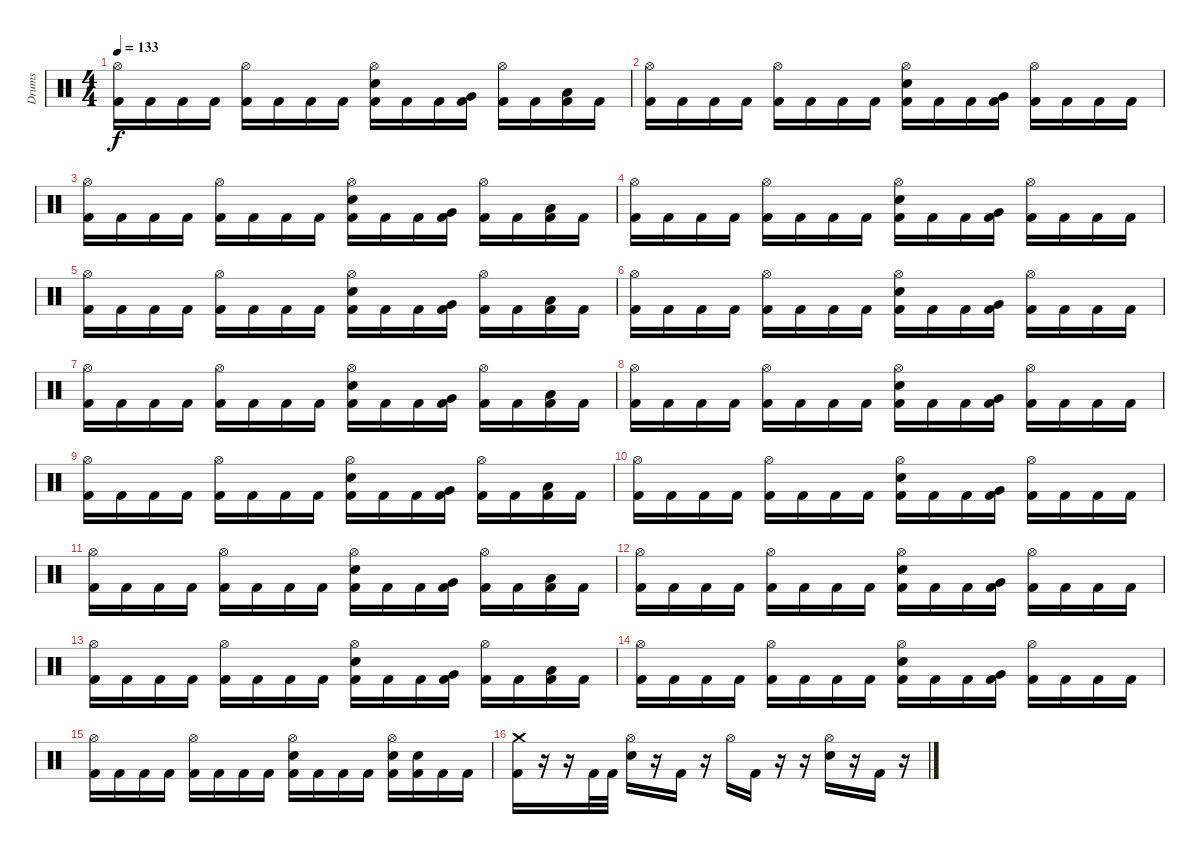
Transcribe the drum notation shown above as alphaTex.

\track ("Drums" "Drums") {instrument percussion}
\staff {score}
\articulation defaults
\ts (4 4)
\tempo 133
\clef neutral
\ks c
("Hi-Hat (open)" "Kick (hit) 2").16{dy f} "Kick (hit) 2".16 "Kick (hit) 2".16 "Kick (hit) 2".16 ("Hi-Hat (open)" "Kick (hit) 2").16 "Kick (hit) 2".16 "Kick (hit) 2".16 "Kick (hit) 2".16 ("Hi-Hat (open)" "Electric Snare (hit)" "Kick (hit) 2").16 "Kick (hit) 2".16 "Kick (hit) 2".16 ("Very Low Tom (hit)" "Kick (hit) 2").16 ("Hi-Hat (open)" "Kick (hit) 2").16 "Kick (hit) 2".16 ("Low Floor Tom (hit)" "Kick (hit) 2").16 "Kick (hit) 2".16 |
("Hi-Hat (open)" "Kick (hit) 2").16 "Kick (hit) 2".16 "Kick (hit) 2".16 "Kick (hit) 2".16 ("Hi-Hat (open)" "Kick (hit) 2").16 "Kick (hit) 2".16 "Kick (hit) 2".16 "Kick (hit) 2".16 ("Hi-Hat (open)" "Electric Snare (hit)" "Kick (hit) 2").16 "Kick (hit) 2".16 "Kick (hit) 2".16 ("Very Low Tom (hit)" "Kick (hit) 2").16 ("Hi-Hat (open)" "Kick (hit) 2").16 "Kick (hit) 2".16 "Kick (hit) 2".16 "Kick (hit) 2".16 |
("Hi-Hat (open)" "Kick (hit) 2").16 "Kick (hit) 2".16 "Kick (hit) 2".16 "Kick (hit) 2".16 ("Hi-Hat (open)" "Kick (hit) 2").16 "Kick (hit) 2".16 "Kick (hit) 2".16 "Kick (hit) 2".16 ("Hi-Hat (open)" "Electric Snare (hit)" "Kick (hit) 2").16 "Kick (hit) 2".16 "Kick (hit) 2".16 ("Very Low Tom (hit)" "Kick (hit) 2").16 ("Hi-Hat (open)" "Kick (hit) 2").16 "Kick (hit) 2".16 ("Low Floor Tom (hit)" "Kick (hit) 2").16 "Kick (hit) 2".16 |
("Hi-Hat (open)" "Kick (hit) 2").16 "Kick (hit) 2".16 "Kick (hit) 2".16 "Kick (hit) 2".16 ("Hi-Hat (open)" "Kick (hit) 2").16 "Kick (hit) 2".16 "Kick (hit) 2".16 "Kick (hit) 2".16 ("Hi-Hat (open)" "Electric Snare (hit)" "Kick (hit) 2").16 "Kick (hit) 2".16 "Kick (hit) 2".16 ("Very Low Tom (hit)" "Kick (hit) 2").16 ("Hi-Hat (open)" "Kick (hit) 2").16 "Kick (hit) 2".16 "Kick (hit) 2".16 "Kick (hit) 2".16 |
("Hi-Hat (open)" "Kick (hit) 2").16 "Kick (hit) 2".16 "Kick (hit) 2".16 "Kick (hit) 2".16 ("Hi-Hat (open)" "Kick (hit) 2").16 "Kick (hit) 2".16 "Kick (hit) 2".16 "Kick (hit) 2".16 ("Hi-Hat (open)" "Electric Snare (hit)" "Kick (hit) 2").16 "Kick (hit) 2".16 "Kick (hit) 2".16 ("Very Low Tom (hit)" "Kick (hit) 2").16 ("Hi-Hat (open)" "Kick (hit) 2").16 "Kick (hit) 2".16 ("Low Floor Tom (hit)" "Kick (hit) 2").16 "Kick (hit) 2".16 |
("Hi-Hat (open)" "Kick (hit) 2").16 "Kick (hit) 2".16 "Kick (hit) 2".16 "Kick (hit) 2".16 ("Hi-Hat (open)" "Kick (hit) 2").16 "Kick (hit) 2".16 "Kick (hit) 2".16 "Kick (hit) 2".16 ("Hi-Hat (open)" "Electric Snare (hit)" "Kick (hit) 2").16 "Kick (hit) 2".16 "Kick (hit) 2".16 ("Very Low Tom (hit)" "Kick (hit) 2").16 ("Hi-Hat (open)" "Kick (hit) 2").16 "Kick (hit) 2".16 "Kick (hit) 2".16 "Kick (hit) 2".16 |
("Hi-Hat (open)" "Kick (hit) 2").16 "Kick (hit) 2".16 "Kick (hit) 2".16 "Kick (hit) 2".16 ("Hi-Hat (open)" "Kick (hit) 2").16 "Kick (hit) 2".16 "Kick (hit) 2".16 "Kick (hit) 2".16 ("Hi-Hat (open)" "Electric Snare (hit)" "Kick (hit) 2").16 "Kick (hit) 2".16 "Kick (hit) 2".16 ("Very Low Tom (hit)" "Kick (hit) 2").16 ("Hi-Hat (open)" "Kick (hit) 2").16 "Kick (hit) 2".16 ("Low Floor Tom (hit)" "Kick (hit) 2").16 "Kick (hit) 2".16 |
\section ("" "")
("Hi-Hat (open)" "Kick (hit) 2").16 "Kick (hit) 2".16 "Kick (hit) 2".16 "Kick (hit) 2".16 ("Hi-Hat (open)" "Kick (hit) 2").16 "Kick (hit) 2".16 "Kick (hit) 2".16 "Kick (hit) 2".16 ("Hi-Hat (open)" "Electric Snare (hit)" "Kick (hit) 2").16 "Kick (hit) 2".16 "Kick (hit) 2".16 ("Very Low Tom (hit)" "Kick (hit) 2").16 ("Hi-Hat (open)" "Kick (hit) 2").16 "Kick (hit) 2".16 "Kick (hit) 2".16 "Kick (hit) 2".16 |
("Hi-Hat (open)" "Kick (hit) 2").16 "Kick (hit) 2".16 "Kick (hit) 2".16 "Kick (hit) 2".16 ("Hi-Hat (open)" "Kick (hit) 2").16 "Kick (hit) 2".16 "Kick (hit) 2".16 "Kick (hit) 2".16 ("Hi-Hat (open)" "Electric Snare (hit)" "Kick (hit) 2").16 "Kick (hit) 2".16 "Kick (hit) 2".16 ("Very Low Tom (hit)" "Kick (hit) 2").16 ("Hi-Hat (open)" "Kick (hit) 2").16 "Kick (hit) 2".16 ("Low Floor Tom (hit)" "Kick (hit) 2").16 "Kick (hit) 2".16 |
("Hi-Hat (open)" "Kick (hit) 2").16 "Kick (hit) 2".16 "Kick (hit) 2".16 "Kick (hit) 2".16 ("Hi-Hat (open)" "Kick (hit) 2").16 "Kick (hit) 2".16 "Kick (hit) 2".16 "Kick (hit) 2".16 ("Hi-Hat (open)" "Electric Snare (hit)" "Kick (hit) 2").16 "Kick (hit) 2".16 "Kick (hit) 2".16 ("Very Low Tom (hit)" "Kick (hit) 2").16 ("Hi-Hat (open)" "Kick (hit) 2").16 "Kick (hit) 2".16 "Kick (hit) 2".16 "Kick (hit) 2".16 |
("Hi-Hat (open)" "Kick (hit) 2").16 "Kick (hit) 2".16 "Kick (hit) 2".16 "Kick (hit) 2".16 ("Hi-Hat (open)" "Kick (hit) 2").16 "Kick (hit) 2".16 "Kick (hit) 2".16 "Kick (hit) 2".16 ("Hi-Hat (open)" "Electric Snare (hit)" "Kick (hit) 2").16 "Kick (hit) 2".16 "Kick (hit) 2".16 ("Very Low Tom (hit)" "Kick (hit) 2").16 ("Hi-Hat (open)" "Kick (hit) 2").16 "Kick (hit) 2".16 ("Low Floor Tom (hit)" "Kick (hit) 2").16 "Kick (hit) 2".16 |
("Hi-Hat (open)" "Kick (hit) 2").16 "Kick (hit) 2".16 "Kick (hit) 2".16 "Kick (hit) 2".16 ("Hi-Hat (open)" "Kick (hit) 2").16 "Kick (hit) 2".16 "Kick (hit) 2".16 "Kick (hit) 2".16 ("Hi-Hat (open)" "Electric Snare (hit)" "Kick (hit) 2").16 "Kick (hit) 2".16 "Kick (hit) 2".16 ("Very Low Tom (hit)" "Kick (hit) 2").16 ("Hi-Hat (open)" "Kick (hit) 2").16 "Kick (hit) 2".16 "Kick (hit) 2".16 "Kick (hit) 2".16 |
("Hi-Hat (open)" "Kick (hit) 2").16 "Kick (hit) 2".16 "Kick (hit) 2".16 "Kick (hit) 2".16 ("Hi-Hat (open)" "Kick (hit) 2").16 "Kick (hit) 2".16 "Kick (hit) 2".16 "Kick (hit) 2".16 ("Hi-Hat (open)" "Electric Snare (hit)" "Kick (hit) 2").16 "Kick (hit) 2".16 "Kick (hit) 2".16 ("Very Low Tom (hit)" "Kick (hit) 2").16 ("Hi-Hat (open)" "Kick (hit) 2").16 "Kick (hit) 2".16 ("Low Floor Tom (hit)" "Kick (hit) 2").16 "Kick (hit) 2".16 |
("Hi-Hat (open)" "Kick (hit) 2").16 "Kick (hit) 2".16 "Kick (hit) 2".16 "Kick (hit) 2".16 ("Hi-Hat (open)" "Kick (hit) 2").16 "Kick (hit) 2".16 "Kick (hit) 2".16 "Kick (hit) 2".16 ("Hi-Hat (open)" "Electric Snare (hit)" "Kick (hit) 2").16 "Kick (hit) 2".16 "Kick (hit) 2".16 ("Very Low Tom (hit)" "Kick (hit) 2").16 ("Hi-Hat (open)" "Kick (hit) 2").16 "Kick (hit) 2".16 "Kick (hit) 2".16 "Kick (hit) 2".16 |
("Hi-Hat (open)" "Kick (hit) 2").16 "Kick (hit) 2".16 "Kick (hit) 2".16 "Kick (hit) 2".16 ("Hi-Hat (open)" "Kick (hit) 2").16 "Kick (hit) 2".16 "Kick (hit) 2".16 "Kick (hit) 2".16 ("Hi-Hat (open)" "Electric Snare (hit)" "Kick (hit) 2").16 "Kick (hit) 2".16 "Kick (hit) 2".16 "Kick (hit) 2".16 ("Hi-Hat (open)" "Electric Snare (hit)" "Kick (hit) 2").16 ("Electric Snare (hit)" "Kick (hit) 2").16 "Kick (hit) 2".16 "Kick (hit) 2".16 |
\section ("" "")
("Crash medium (hit)" "Kick (hit) 2").16 r.16 r.16 "Kick (hit) 2".32 "Kick (hit) 2".32 ("Hi-Hat (open)" "Electric Snare (hit)").16 r.16 "Kick (hit) 2".16 r.16 "Hi-Hat (open)".16 "Kick (hit) 2".16 r.16 r.16 ("Hi-Hat (open)" "Electric Snare (hit)").16 r.16 "Kick (hit) 2".16 r.16
